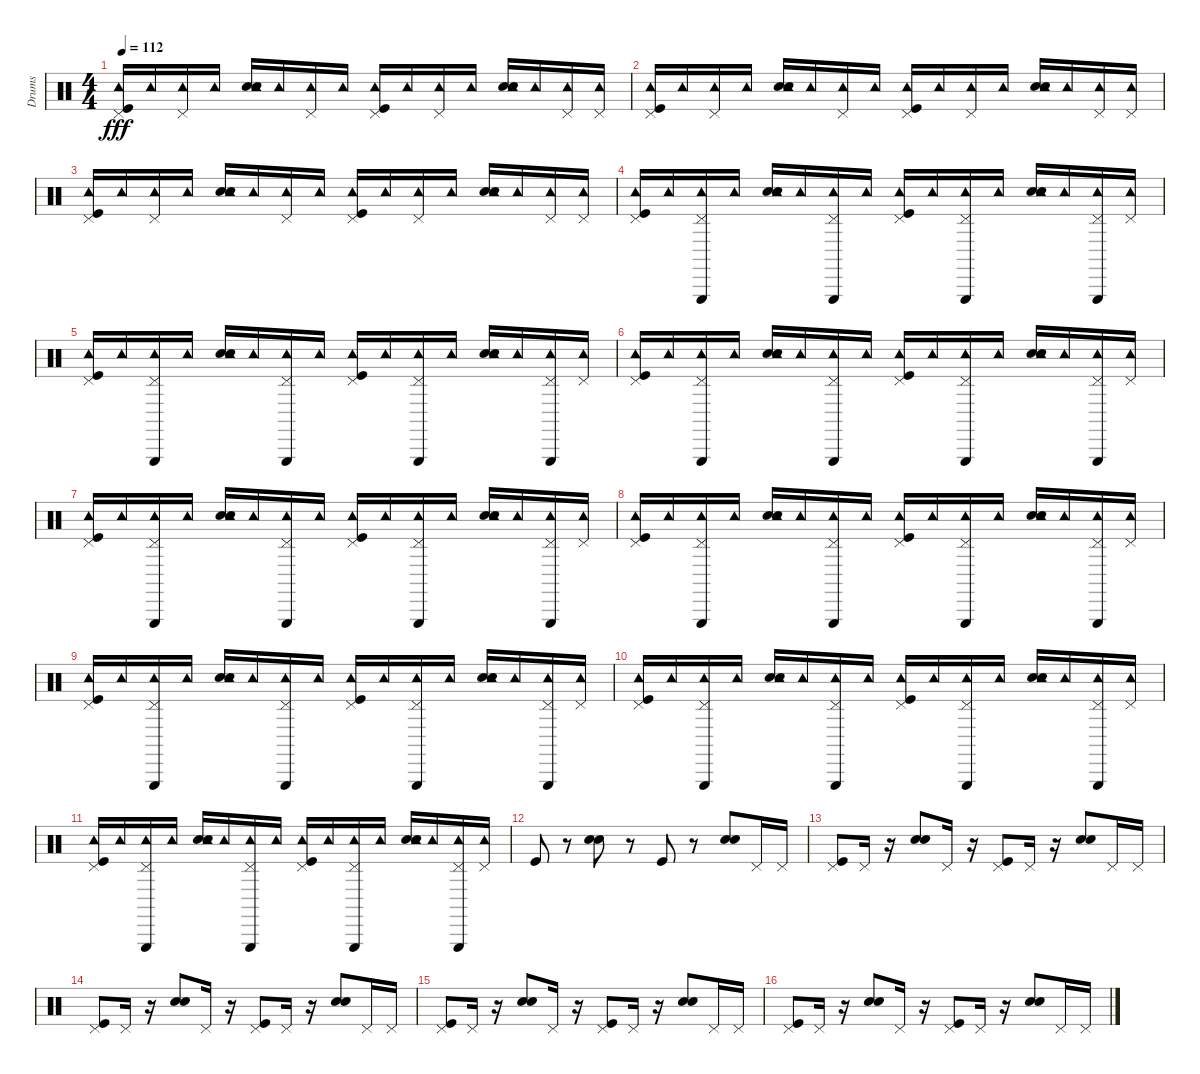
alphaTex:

\track ("Drums" "Drums") {instrument percussion}
\staff {score}
\articulation defaults
\ts (4 4)
\tempo 112
\clef neutral
\ks c
("Pedal Hi-Hat (hit)" "Tambourine (hit)" "Kick (hit)").16{dy fff} "Tambourine (hit)".16 ("Pedal Hi-Hat (hit)" "Tambourine (hit)").16 "Tambourine (hit)".16 ("Snare (hit) 2" "Hand Clap (hit)" "Tambourine (hit)").16 "Tambourine (hit)".16 ("Pedal Hi-Hat (hit)" "Tambourine (hit)").16 "Tambourine (hit)".16 ("Pedal Hi-Hat (hit)" "Tambourine (hit)" "Kick (hit)").16 "Tambourine (hit)".16 ("Pedal Hi-Hat (hit)" "Tambourine (hit)").16 "Tambourine (hit)".16 ("Snare (hit) 2" "Hand Clap (hit)" "Tambourine (hit)").16 "Tambourine (hit)".16 ("Pedal Hi-Hat (hit)" "Tambourine (hit)").16 ("Pedal Hi-Hat (hit)" "Tambourine (hit)").16 |
("Pedal Hi-Hat (hit)" "Tambourine (hit)" "Kick (hit)").16 "Tambourine (hit)".16 ("Pedal Hi-Hat (hit)" "Tambourine (hit)").16 "Tambourine (hit)".16 ("Snare (hit) 2" "Hand Clap (hit)" "Tambourine (hit)").16 "Tambourine (hit)".16 ("Pedal Hi-Hat (hit)" "Tambourine (hit)").16 "Tambourine (hit)".16 ("Pedal Hi-Hat (hit)" "Tambourine (hit)" "Kick (hit)").16 "Tambourine (hit)".16 ("Pedal Hi-Hat (hit)" "Tambourine (hit)").16 "Tambourine (hit)".16 ("Snare (hit) 2" "Hand Clap (hit)" "Tambourine (hit)").16 "Tambourine (hit)".16 ("Pedal Hi-Hat (hit)" "Tambourine (hit)").16 ("Pedal Hi-Hat (hit)" "Tambourine (hit)").16 |
("Pedal Hi-Hat (hit)" "Tambourine (hit)" "Kick (hit)").16 "Tambourine (hit)".16 ("Pedal Hi-Hat (hit)" "Tambourine (hit)").16 "Tambourine (hit)".16 ("Snare (hit) 2" "Hand Clap (hit)" "Tambourine (hit)").16 "Tambourine (hit)".16 ("Pedal Hi-Hat (hit)" "Tambourine (hit)").16 "Tambourine (hit)".16 ("Pedal Hi-Hat (hit)" "Tambourine (hit)" "Kick (hit)").16 "Tambourine (hit)".16 ("Pedal Hi-Hat (hit)" "Tambourine (hit)").16 "Tambourine (hit)".16 ("Snare (hit) 2" "Hand Clap (hit)" "Tambourine (hit)").16 "Tambourine (hit)".16 ("Pedal Hi-Hat (hit)" "Tambourine (hit)").16 ("Pedal Hi-Hat (hit)" "Tambourine (hit)").16 |
("Pedal Hi-Hat (hit)" "Tambourine (hit)" "Kick (hit)").16 "Tambourine (hit)".16 ("Pedal Hi-Hat (hit)" "Triangle (hit)" "Tambourine (hit)").16 "Tambourine (hit)".16 ("Snare (hit) 2" "Hand Clap (hit)" "Tambourine (hit)").16 "Tambourine (hit)".16 ("Pedal Hi-Hat (hit)" "Triangle (hit)" "Tambourine (hit)").16 "Tambourine (hit)".16 ("Pedal Hi-Hat (hit)" "Tambourine (hit)" "Kick (hit)").16 "Tambourine (hit)".16 ("Pedal Hi-Hat (hit)" "Triangle (hit)" "Tambourine (hit)").16 "Tambourine (hit)".16 ("Snare (hit) 2" "Hand Clap (hit)" "Tambourine (hit)").16 "Tambourine (hit)".16 ("Pedal Hi-Hat (hit)" "Triangle (hit)" "Tambourine (hit)").16 ("Pedal Hi-Hat (hit)" "Tambourine (hit)").16 |
("Pedal Hi-Hat (hit)" "Tambourine (hit)" "Kick (hit)").16 "Tambourine (hit)".16 ("Pedal Hi-Hat (hit)" "Triangle (hit)" "Tambourine (hit)").16 "Tambourine (hit)".16 ("Snare (hit) 2" "Hand Clap (hit)" "Tambourine (hit)").16 "Tambourine (hit)".16 ("Pedal Hi-Hat (hit)" "Triangle (hit)" "Tambourine (hit)").16 "Tambourine (hit)".16 ("Pedal Hi-Hat (hit)" "Tambourine (hit)" "Kick (hit)").16 "Tambourine (hit)".16 ("Pedal Hi-Hat (hit)" "Triangle (hit)" "Tambourine (hit)").16 "Tambourine (hit)".16 ("Snare (hit) 2" "Hand Clap (hit)" "Tambourine (hit)").16 "Tambourine (hit)".16 ("Pedal Hi-Hat (hit)" "Triangle (hit)" "Tambourine (hit)").16 ("Pedal Hi-Hat (hit)" "Tambourine (hit)").16 |
("Pedal Hi-Hat (hit)" "Tambourine (hit)" "Kick (hit)").16 "Tambourine (hit)".16 ("Pedal Hi-Hat (hit)" "Triangle (hit)" "Tambourine (hit)").16 "Tambourine (hit)".16 ("Snare (hit) 2" "Hand Clap (hit)" "Tambourine (hit)").16 "Tambourine (hit)".16 ("Pedal Hi-Hat (hit)" "Triangle (hit)" "Tambourine (hit)").16 "Tambourine (hit)".16 ("Pedal Hi-Hat (hit)" "Tambourine (hit)" "Kick (hit)").16 "Tambourine (hit)".16 ("Pedal Hi-Hat (hit)" "Triangle (hit)" "Tambourine (hit)").16 "Tambourine (hit)".16 ("Snare (hit) 2" "Hand Clap (hit)" "Tambourine (hit)").16 "Tambourine (hit)".16 ("Pedal Hi-Hat (hit)" "Triangle (hit)" "Tambourine (hit)").16 ("Pedal Hi-Hat (hit)" "Tambourine (hit)").16 |
("Pedal Hi-Hat (hit)" "Tambourine (hit)" "Kick (hit)").16 "Tambourine (hit)".16 ("Pedal Hi-Hat (hit)" "Triangle (hit)" "Tambourine (hit)").16 "Tambourine (hit)".16 ("Snare (hit) 2" "Hand Clap (hit)" "Tambourine (hit)").16 "Tambourine (hit)".16 ("Pedal Hi-Hat (hit)" "Triangle (hit)" "Tambourine (hit)").16 "Tambourine (hit)".16 ("Pedal Hi-Hat (hit)" "Tambourine (hit)" "Kick (hit)").16 "Tambourine (hit)".16 ("Pedal Hi-Hat (hit)" "Triangle (hit)" "Tambourine (hit)").16 "Tambourine (hit)".16 ("Snare (hit) 2" "Hand Clap (hit)" "Tambourine (hit)").16 "Tambourine (hit)".16 ("Pedal Hi-Hat (hit)" "Triangle (hit)" "Tambourine (hit)").16 ("Pedal Hi-Hat (hit)" "Tambourine (hit)").16 |
("Pedal Hi-Hat (hit)" "Tambourine (hit)" "Kick (hit)").16 "Tambourine (hit)".16 ("Pedal Hi-Hat (hit)" "Triangle (hit)" "Tambourine (hit)").16 "Tambourine (hit)".16 ("Snare (hit) 2" "Hand Clap (hit)" "Tambourine (hit)").16 "Tambourine (hit)".16 ("Pedal Hi-Hat (hit)" "Triangle (hit)" "Tambourine (hit)").16 "Tambourine (hit)".16 ("Pedal Hi-Hat (hit)" "Tambourine (hit)" "Kick (hit)").16 "Tambourine (hit)".16 ("Pedal Hi-Hat (hit)" "Triangle (hit)" "Tambourine (hit)").16 "Tambourine (hit)".16 ("Snare (hit) 2" "Hand Clap (hit)" "Tambourine (hit)").16 "Tambourine (hit)".16 ("Pedal Hi-Hat (hit)" "Triangle (hit)" "Tambourine (hit)").16 ("Pedal Hi-Hat (hit)" "Tambourine (hit)").16 |
("Pedal Hi-Hat (hit)" "Tambourine (hit)" "Kick (hit)").16 "Tambourine (hit)".16 ("Pedal Hi-Hat (hit)" "Triangle (hit)" "Tambourine (hit)").16 "Tambourine (hit)".16 ("Snare (hit) 2" "Hand Clap (hit)" "Tambourine (hit)").16 "Tambourine (hit)".16 ("Pedal Hi-Hat (hit)" "Triangle (hit)" "Tambourine (hit)").16 "Tambourine (hit)".16 ("Pedal Hi-Hat (hit)" "Tambourine (hit)" "Kick (hit)").16 "Tambourine (hit)".16 ("Pedal Hi-Hat (hit)" "Triangle (hit)" "Tambourine (hit)").16 "Tambourine (hit)".16 ("Snare (hit) 2" "Hand Clap (hit)" "Tambourine (hit)").16 "Tambourine (hit)".16 ("Pedal Hi-Hat (hit)" "Triangle (hit)" "Tambourine (hit)").16 ("Pedal Hi-Hat (hit)" "Tambourine (hit)").16 |
("Pedal Hi-Hat (hit)" "Tambourine (hit)" "Kick (hit)").16 "Tambourine (hit)".16 ("Pedal Hi-Hat (hit)" "Triangle (hit)" "Tambourine (hit)").16 "Tambourine (hit)".16 ("Snare (hit) 2" "Hand Clap (hit)" "Tambourine (hit)").16 "Tambourine (hit)".16 ("Pedal Hi-Hat (hit)" "Triangle (hit)" "Tambourine (hit)").16 "Tambourine (hit)".16 ("Pedal Hi-Hat (hit)" "Tambourine (hit)" "Kick (hit)").16 "Tambourine (hit)".16 ("Pedal Hi-Hat (hit)" "Triangle (hit)" "Tambourine (hit)").16 "Tambourine (hit)".16 ("Snare (hit) 2" "Hand Clap (hit)" "Tambourine (hit)").16 "Tambourine (hit)".16 ("Pedal Hi-Hat (hit)" "Triangle (hit)" "Tambourine (hit)").16 ("Pedal Hi-Hat (hit)" "Tambourine (hit)").16 |
("Pedal Hi-Hat (hit)" "Tambourine (hit)" "Kick (hit)").16 "Tambourine (hit)".16 ("Pedal Hi-Hat (hit)" "Triangle (hit)" "Tambourine (hit)").16 "Tambourine (hit)".16 ("Snare (hit) 2" "Hand Clap (hit)" "Tambourine (hit)").16 "Tambourine (hit)".16 ("Pedal Hi-Hat (hit)" "Triangle (hit)" "Tambourine (hit)").16 "Tambourine (hit)".16 ("Pedal Hi-Hat (hit)" "Tambourine (hit)" "Kick (hit)").16 "Tambourine (hit)".16 ("Pedal Hi-Hat (hit)" "Triangle (hit)" "Tambourine (hit)").16 "Tambourine (hit)".16 ("Snare (hit) 2" "Hand Clap (hit)" "Tambourine (hit)").16 "Tambourine (hit)".16 ("Pedal Hi-Hat (hit)" "Triangle (hit)" "Tambourine (hit)").16 ("Pedal Hi-Hat (hit)" "Tambourine (hit)").16 |
"Kick (hit)".8 r.8 ("Snare (hit) 2" "Hand Clap (hit)").8 r.8 "Kick (hit)".8 r.8 ("Snare (hit) 2" "Hand Clap (hit)").8 "Pedal Hi-Hat (hit)".16 "Pedal Hi-Hat (hit)".16 |
("Pedal Hi-Hat (hit)" "Kick (hit)").8 "Pedal Hi-Hat (hit)".16 r.16 ("Snare (hit) 2" "Hand Clap (hit)").8 "Pedal Hi-Hat (hit)".16 r.16 ("Pedal Hi-Hat (hit)" "Kick (hit)").8 "Pedal Hi-Hat (hit)".16 r.16 ("Snare (hit) 2" "Hand Clap (hit)").8 "Pedal Hi-Hat (hit)".16 "Pedal Hi-Hat (hit)".16 |
("Pedal Hi-Hat (hit)" "Kick (hit)").8 "Pedal Hi-Hat (hit)".16 r.16 ("Snare (hit) 2" "Hand Clap (hit)").8 "Pedal Hi-Hat (hit)".16 r.16 ("Pedal Hi-Hat (hit)" "Kick (hit)").8 "Pedal Hi-Hat (hit)".16 r.16 ("Snare (hit) 2" "Hand Clap (hit)").8 "Pedal Hi-Hat (hit)".16 "Pedal Hi-Hat (hit)".16 |
("Pedal Hi-Hat (hit)" "Kick (hit)").8 "Pedal Hi-Hat (hit)".16 r.16 ("Snare (hit) 2" "Hand Clap (hit)").8 "Pedal Hi-Hat (hit)".16 r.16 ("Pedal Hi-Hat (hit)" "Kick (hit)").8 "Pedal Hi-Hat (hit)".16 r.16 ("Snare (hit) 2" "Hand Clap (hit)").8 "Pedal Hi-Hat (hit)".16 "Pedal Hi-Hat (hit)".16 |
("Pedal Hi-Hat (hit)" "Kick (hit)").8 "Pedal Hi-Hat (hit)".16 r.16 ("Snare (hit) 2" "Hand Clap (hit)").8 "Pedal Hi-Hat (hit)".16 r.16 ("Pedal Hi-Hat (hit)" "Kick (hit)").8 "Pedal Hi-Hat (hit)".16 r.16 ("Snare (hit) 2" "Hand Clap (hit)").8 "Pedal Hi-Hat (hit)".16 "Pedal Hi-Hat (hit)".16
